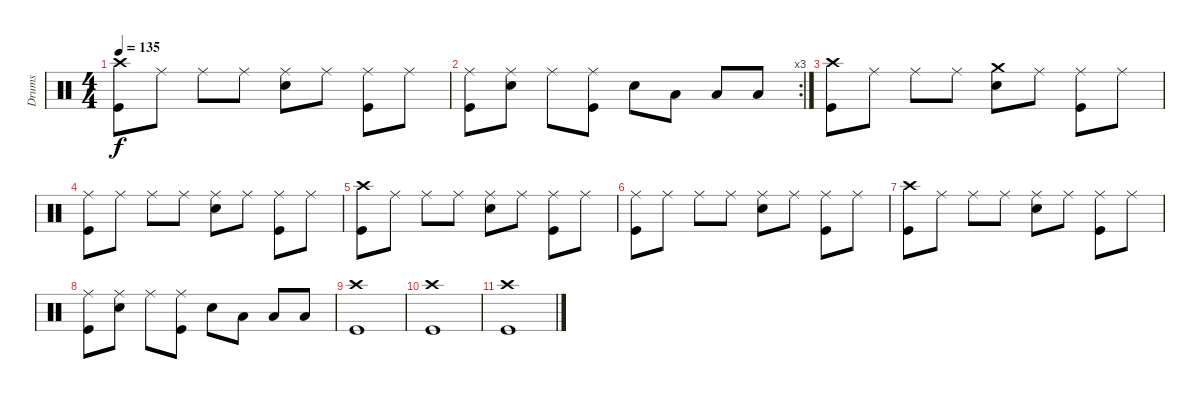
\track ("Drums" "Drums") {instrument percussion}
\staff {score}
\articulation defaults
\ts (4 4)
\tempo 135
\clef neutral
\ks c
("Kick (hit)" "Crash high (hit)").8{dy f} "Ride (middle)".8 "Ride (middle)".8 "Ride (middle)".8 ("Ride (middle)" "Snare (hit) 2").8 "Ride (middle)".8 ("Kick (hit)" "Ride (middle)").8 "Ride (middle)".8 |
\rc 3
("Kick (hit)" "Ride (middle)").8 ("Ride (middle)" "Snare (hit) 2").8 "Ride (middle)".8 ("Kick (hit)" "Ride (middle)").8 "Snare (hit) 2".8 "Low Floor Tom (hit)".8 "Low Floor Tom (hit)".8 "Low Floor Tom (hit)".8 |
("Kick (hit)" "Crash high (hit)").8 "Ride (middle)".8 "Ride (middle)".8 "Ride (middle)".8 ("Crash medium (hit)" "Snare (hit) 2").8 "Ride (middle)".8 ("Kick (hit)" "Ride (middle)").8 "Ride (middle)".8 |
("Kick (hit)" "Ride (middle)").8 "Ride (middle)".8 "Ride (middle)".8 "Ride (middle)".8 ("Ride (middle)" "Snare (hit) 2").8 "Ride (middle)".8 ("Kick (hit)" "Ride (middle)").8 "Ride (middle)".8 |
("Kick (hit)" "Crash high (hit)").8 "Ride (middle)".8 "Ride (middle)".8 "Ride (middle)".8 ("Ride (middle)" "Snare (hit) 2").8 "Ride (middle)".8 ("Kick (hit)" "Ride (middle)").8 "Ride (middle)".8 |
("Kick (hit)" "Ride (middle)").8 "Ride (middle)".8 "Ride (middle)".8 "Ride (middle)".8 ("Ride (middle)" "Snare (hit) 2").8 "Ride (middle)".8 ("Kick (hit)" "Ride (middle)").8 "Ride (middle)".8 |
("Kick (hit)" "Crash high (hit)").8 "Ride (middle)".8 "Ride (middle)".8 "Ride (middle)".8 ("Ride (middle)" "Snare (hit) 2").8 "Ride (middle)".8 ("Kick (hit)" "Ride (middle)").8 "Ride (middle)".8 |
("Kick (hit)" "Ride (middle)").8 ("Ride (middle)" "Snare (hit) 2").8 "Ride (middle)".8 ("Kick (hit)" "Ride (middle)").8 "Snare (hit) 2".8 "Low Floor Tom (hit)".8 "Low Floor Tom (hit)".8 "Low Floor Tom (hit)".8 |
("Kick (hit)" "Crash high (hit)").1 |
("Kick (hit)" "Crash high (hit)").1 |
("Kick (hit)" "Crash high (hit)").1
